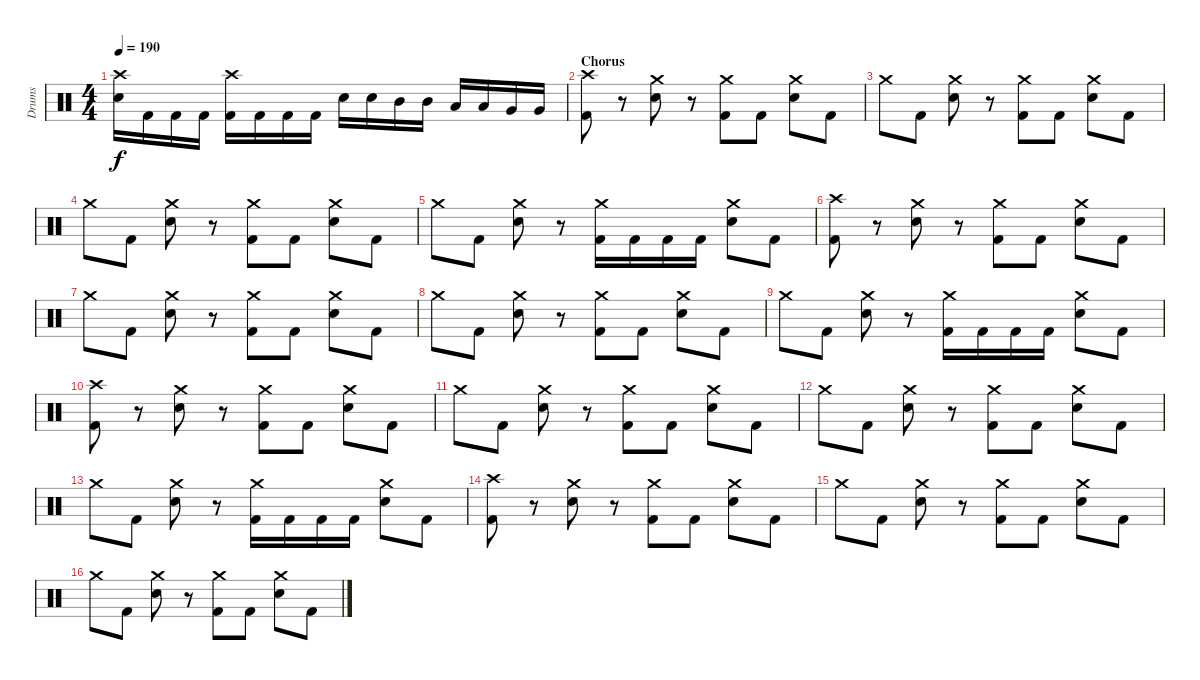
\track ("Drums" "Drums") {instrument percussion}
\staff {score}
\articulation defaults
\ts (4 4)
\tempo 190
\clef neutral
\ks c
("Crash high (hit)" "Electric Snare (hit)").16{dy f} "Kick (hit) 2".16 "Kick (hit) 2".16 "Kick (hit) 2".16 ("Crash high (hit)" "Kick (hit) 2").16 "Kick (hit) 2".16 "Kick (hit) 2".16 "Kick (hit) 2".16 "Electric Snare (hit)".16 "Electric Snare (hit)".16 "Mid Tom (hit)".16 "Mid Tom (hit)".16 "Low Tom (hit)".16 "Low Tom (hit)".16 "Very Low Tom (hit)".16 "Very Low Tom (hit)".16 |
\section ("" "Chorus")
("Crash high (hit)" "Kick (hit) 2").8 r.8 ("Crash medium (hit)" "Electric Snare (hit)").8 r.8 ("Crash medium (hit)" "Kick (hit) 2").8 "Kick (hit) 2".8 ("Crash medium (hit)" "Electric Snare (hit)").8 "Kick (hit) 2".8 |
"Crash medium (hit)".8 "Kick (hit) 2".8 ("Crash medium (hit)" "Electric Snare (hit)").8 r.8 ("Crash medium (hit)" "Kick (hit) 2").8 "Kick (hit) 2".8 ("Crash medium (hit)" "Electric Snare (hit)").8 "Kick (hit) 2".8 |
"Crash medium (hit)".8 "Kick (hit) 2".8 ("Crash medium (hit)" "Electric Snare (hit)").8 r.8 ("Crash medium (hit)" "Kick (hit) 2").8 "Kick (hit) 2".8 ("Crash medium (hit)" "Electric Snare (hit)").8 "Kick (hit) 2".8 |
"Crash medium (hit)".8 "Kick (hit) 2".8 ("Crash medium (hit)" "Electric Snare (hit)").8 r.8 ("Crash medium (hit)" "Kick (hit) 2").16 "Kick (hit) 2".16 "Kick (hit) 2".16 "Kick (hit) 2".16 ("Crash medium (hit)" "Electric Snare (hit)").8 "Kick (hit) 2".8 |
("Crash high (hit)" "Kick (hit) 2").8 r.8 ("Crash medium (hit)" "Electric Snare (hit)").8 r.8 ("Crash medium (hit)" "Kick (hit) 2").8 "Kick (hit) 2".8 ("Crash medium (hit)" "Electric Snare (hit)").8 "Kick (hit) 2".8 |
"Crash medium (hit)".8 "Kick (hit) 2".8 ("Crash medium (hit)" "Electric Snare (hit)").8 r.8 ("Crash medium (hit)" "Kick (hit) 2").8 "Kick (hit) 2".8 ("Crash medium (hit)" "Electric Snare (hit)").8 "Kick (hit) 2".8 |
"Crash medium (hit)".8 "Kick (hit) 2".8 ("Crash medium (hit)" "Electric Snare (hit)").8 r.8 ("Crash medium (hit)" "Kick (hit) 2").8 "Kick (hit) 2".8 ("Crash medium (hit)" "Electric Snare (hit)").8 "Kick (hit) 2".8 |
"Crash medium (hit)".8 "Kick (hit) 2".8 ("Crash medium (hit)" "Electric Snare (hit)").8 r.8 ("Crash medium (hit)" "Kick (hit) 2").16 "Kick (hit) 2".16 "Kick (hit) 2".16 "Kick (hit) 2".16 ("Crash medium (hit)" "Electric Snare (hit)").8 "Kick (hit) 2".8 |
("Crash high (hit)" "Kick (hit) 2").8 r.8 ("Crash medium (hit)" "Electric Snare (hit)").8 r.8 ("Crash medium (hit)" "Kick (hit) 2").8 "Kick (hit) 2".8 ("Crash medium (hit)" "Electric Snare (hit)").8 "Kick (hit) 2".8 |
"Crash medium (hit)".8 "Kick (hit) 2".8 ("Crash medium (hit)" "Electric Snare (hit)").8 r.8 ("Crash medium (hit)" "Kick (hit) 2").8 "Kick (hit) 2".8 ("Crash medium (hit)" "Electric Snare (hit)").8 "Kick (hit) 2".8 |
"Crash medium (hit)".8 "Kick (hit) 2".8 ("Crash medium (hit)" "Electric Snare (hit)").8 r.8 ("Crash medium (hit)" "Kick (hit) 2").8 "Kick (hit) 2".8 ("Crash medium (hit)" "Electric Snare (hit)").8 "Kick (hit) 2".8 |
"Crash medium (hit)".8 "Kick (hit) 2".8 ("Crash medium (hit)" "Electric Snare (hit)").8 r.8 ("Crash medium (hit)" "Kick (hit) 2").16 "Kick (hit) 2".16 "Kick (hit) 2".16 "Kick (hit) 2".16 ("Crash medium (hit)" "Electric Snare (hit)").8 "Kick (hit) 2".8 |
("Crash high (hit)" "Kick (hit) 2").8 r.8 ("Crash medium (hit)" "Electric Snare (hit)").8 r.8 ("Crash medium (hit)" "Kick (hit) 2").8 "Kick (hit) 2".8 ("Crash medium (hit)" "Electric Snare (hit)").8 "Kick (hit) 2".8 |
"Crash medium (hit)".8 "Kick (hit) 2".8 ("Crash medium (hit)" "Electric Snare (hit)").8 r.8 ("Crash medium (hit)" "Kick (hit) 2").8 "Kick (hit) 2".8 ("Crash medium (hit)" "Electric Snare (hit)").8 "Kick (hit) 2".8 |
"Crash medium (hit)".8 "Kick (hit) 2".8 ("Crash medium (hit)" "Electric Snare (hit)").8 r.8 ("Crash medium (hit)" "Kick (hit) 2").8 "Kick (hit) 2".8 ("Crash medium (hit)" "Electric Snare (hit)").8 "Kick (hit) 2".8
